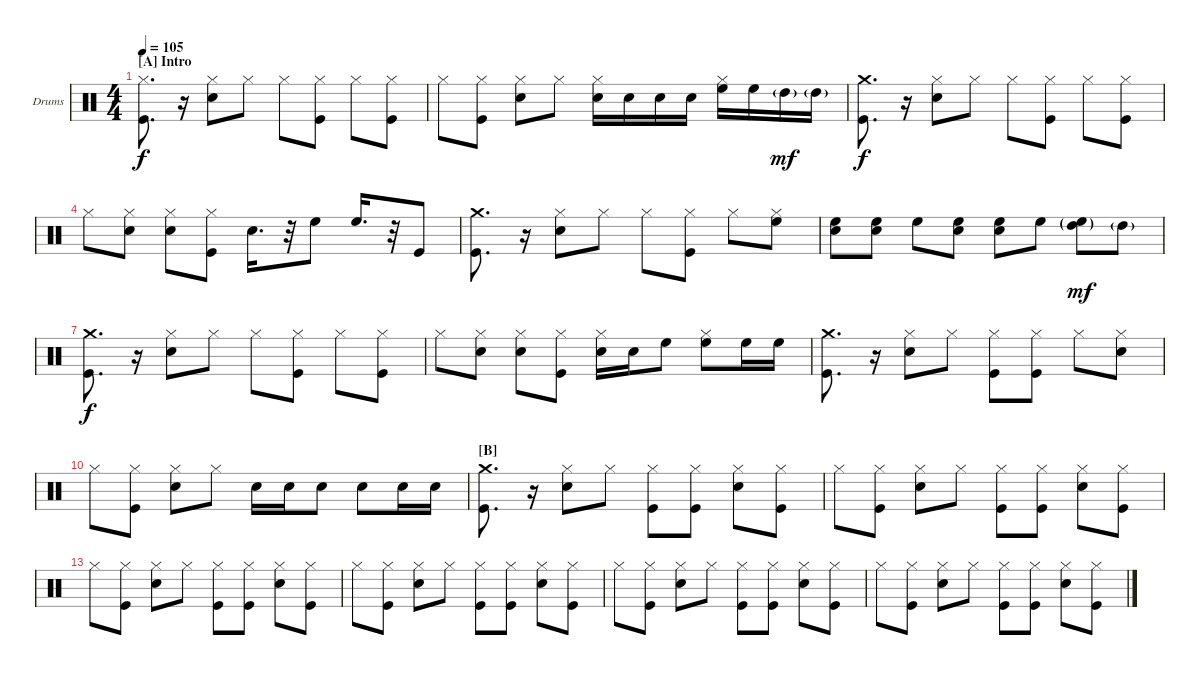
\bracketExtendMode nobrackets
\firstSystemTrackNameOrientation horizontal
\otherSystemsTrackNameOrientation horizontal
\defaultBarNumberDisplay FirstOfSystem
\track ("Drumkit" "Drums") {instrument percussion}
\staff {score}
\articulation defaults
\ts (4 4)
\beaming (8 2 2 2 2)
\section ("A" "Intro")
\tempo 105
\clef neutral
\ks c
("Kick (hit)" "Hi-Hat (closed)").8{d dy f} r.16 ("Snare (hit) 2" "Hi-Hat (closed)").8 "Hi-Hat (closed)".8 "Hi-Hat (closed)".8 ("Kick (hit)" "Hi-Hat (closed)").8 "Hi-Hat (closed)".8 ("Kick (hit)" "Hi-Hat (closed)").8 |
"Hi-Hat (closed)".8 ("Kick (hit)" "Hi-Hat (closed)").8 ("Snare (hit) 2" "Hi-Hat (closed)").8 "Hi-Hat (closed)".8 ("Snare (hit) 2" "Hi-Hat (closed)").16 "Snare (hit) 2".16 "Snare (hit) 2".16 "Snare (hit) 2".16 ("High Floor Tom (hit)" "Hi-Hat (closed)").16 "High Floor Tom (hit)".16 "High Tom (hit)"{g}.16{dy mf} "High Tom (hit)"{g}.16 |
("Kick (hit)" "Crash medium (hit)").8{d dy f} r.16 ("Snare (hit) 2" "Hi-Hat (closed)").8 "Hi-Hat (closed)".8 "Hi-Hat (closed)".8 ("Kick (hit)" "Hi-Hat (closed)").8 "Hi-Hat (closed)".8 ("Kick (hit)" "Hi-Hat (closed)").8 |
"Hi-Hat (closed)".8 ("Snare (hit) 2" "Hi-Hat (closed)").8 ("Snare (hit) 2" "Hi-Hat (closed)").8 ("Kick (hit)" "Hi-Hat (closed)").8 "Snare (hit) 2".16{d} r.32 "High Floor Tom (hit)".8 "High Floor Tom (hit)".16{d} r.32 "Kick (hit)".8 |
("Kick (hit)" "Crash medium (hit)").8{d} r.16 ("Snare (hit) 2" "Hi-Hat (closed)").8 "Hi-Hat (closed)".8 "Hi-Hat (closed)".8 ("Kick (hit)" "Hi-Hat (closed)").8 "Hi-Hat (closed)".8 ("High Floor Tom (hit)" "Hi-Hat (closed)").8 |
("Snare (hit) 2" "High Floor Tom (hit)").8 ("Snare (hit) 2" "High Floor Tom (hit)").8 "High Floor Tom (hit)".8 ("Snare (hit) 2" "High Floor Tom (hit)").8 ("Snare (hit) 2" "High Floor Tom (hit)").8 "High Floor Tom (hit)".8 ("High Floor Tom (hit)"{g} "High Tom (hit)"{g}).8{dy mf} "High Tom (hit)"{g}.8 |
("Kick (hit)" "Crash medium (hit)").8{d dy f} r.16 ("Snare (hit) 2" "Hi-Hat (closed)").8 "Hi-Hat (closed)".8 "Hi-Hat (closed)".8 ("Kick (hit)" "Hi-Hat (closed)").8 "Hi-Hat (closed)".8 ("Kick (hit)" "Hi-Hat (closed)").8 |
"Hi-Hat (closed)".8 ("Snare (hit) 2" "Hi-Hat (closed)").8 ("Snare (hit) 2" "Hi-Hat (closed)").8 ("Kick (hit)" "Hi-Hat (closed)").8 ("Snare (hit) 2" "Hi-Hat (closed)").16 "Snare (hit) 2".16 "High Floor Tom (hit)".8 ("High Floor Tom (hit)" "Hi-Hat (closed)").8 "High Floor Tom (hit)".16 "High Floor Tom (hit)".16 |
("Kick (hit)" "Crash medium (hit)").8{d} r.16 ("Snare (hit) 2" "Hi-Hat (closed)").8 "Hi-Hat (closed)".8 ("Kick (hit)" "Hi-Hat (closed)").8 ("Kick (hit)" "Hi-Hat (closed)").8 "Hi-Hat (closed)".8 ("Snare (hit) 2" "Hi-Hat (closed)").8 |
"Hi-Hat (closed)".8 ("Kick (hit)" "Hi-Hat (closed)").8 ("Snare (hit) 2" "Hi-Hat (closed)").8 "Hi-Hat (closed)".8 "Snare (hit) 2".16 "Snare (hit) 2".16 "Snare (hit) 2".8 "Snare (hit) 2".8 "Snare (hit) 2".16 "Snare (hit) 2".16 |
\section ("B" "")
("Kick (hit)" "Crash medium (hit)").8{d} r.16 ("Snare (hit) 2" "Hi-Hat (closed)").8 "Hi-Hat (closed)".8 ("Kick (hit)" "Hi-Hat (closed)").8 ("Kick (hit)" "Hi-Hat (closed)").8 ("Snare (hit) 2" "Hi-Hat (closed)").8 ("Kick (hit)" "Hi-Hat (closed)").8 |
"Hi-Hat (closed)".8 ("Kick (hit)" "Hi-Hat (closed)").8 ("Snare (hit) 2" "Hi-Hat (closed)").8 "Hi-Hat (closed)".8 ("Kick (hit)" "Hi-Hat (closed)").8 ("Kick (hit)" "Hi-Hat (closed)").8 ("Snare (hit) 2" "Hi-Hat (closed)").8 ("Kick (hit)" "Hi-Hat (closed)").8 |
"Hi-Hat (closed)".8 ("Kick (hit)" "Hi-Hat (closed)").8 ("Snare (hit) 2" "Hi-Hat (closed)").8 "Hi-Hat (closed)".8 ("Kick (hit)" "Hi-Hat (closed)").8 ("Kick (hit)" "Hi-Hat (closed)").8 ("Snare (hit) 2" "Hi-Hat (closed)").8 ("Kick (hit)" "Hi-Hat (closed)").8 |
"Hi-Hat (closed)".8 ("Kick (hit)" "Hi-Hat (closed)").8 ("Snare (hit) 2" "Hi-Hat (closed)").8 "Hi-Hat (closed)".8 ("Kick (hit)" "Hi-Hat (closed)").8 ("Kick (hit)" "Hi-Hat (closed)").8 ("Snare (hit) 2" "Hi-Hat (closed)").8 ("Kick (hit)" "Hi-Hat (closed)").8 |
"Hi-Hat (closed)".8 ("Kick (hit)" "Hi-Hat (closed)").8 ("Snare (hit) 2" "Hi-Hat (closed)").8 "Hi-Hat (closed)".8 ("Kick (hit)" "Hi-Hat (closed)").8 ("Kick (hit)" "Hi-Hat (closed)").8 ("Snare (hit) 2" "Hi-Hat (closed)").8 ("Kick (hit)" "Hi-Hat (closed)").8 |
"Hi-Hat (closed)".8 ("Kick (hit)" "Hi-Hat (closed)").8 ("Snare (hit) 2" "Hi-Hat (closed)").8 "Hi-Hat (closed)".8 ("Kick (hit)" "Hi-Hat (closed)").8 ("Kick (hit)" "Hi-Hat (closed)").8 ("Snare (hit) 2" "Hi-Hat (closed)").8 ("Kick (hit)" "Hi-Hat (closed)").8
